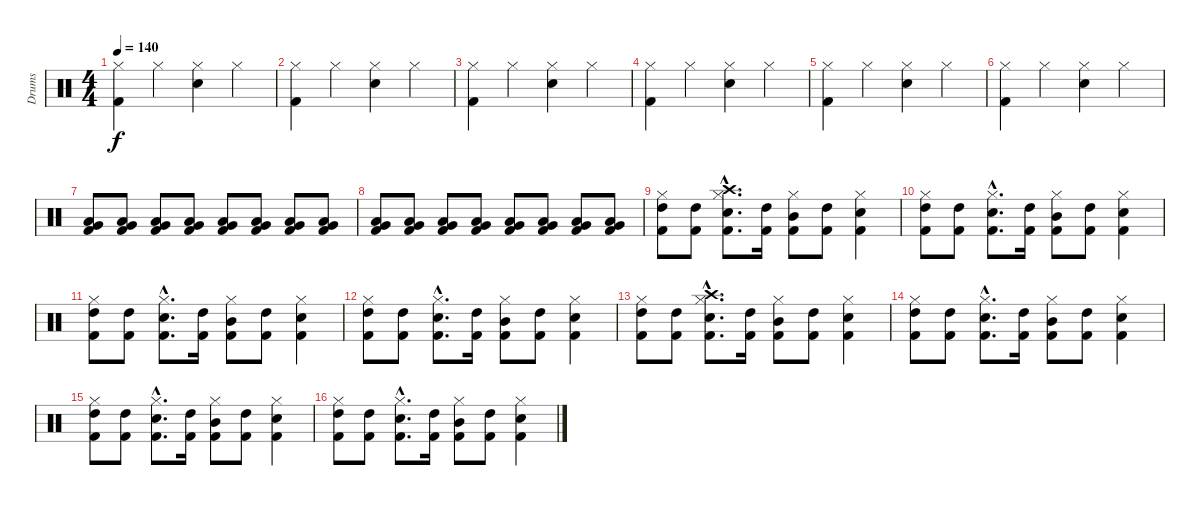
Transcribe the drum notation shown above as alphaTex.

\track ("Drums" "Drums") {instrument percussion}
\staff {score}
\articulation defaults
\ts (4 4)
\tempo 140
\clef neutral
\ks c
("Hi-Hat (closed)" "Kick (hit) 2").4{dy f} "Hi-Hat (closed)".4 ("Hi-Hat (closed)" "Electric Snare (hit)").4 "Hi-Hat (closed)".4 |
("Hi-Hat (closed)" "Kick (hit) 2").4 "Hi-Hat (closed)".4 ("Hi-Hat (closed)" "Electric Snare (hit)").4 "Hi-Hat (closed)".4 |
("Hi-Hat (closed)" "Kick (hit) 2").4 "Hi-Hat (closed)".4 ("Hi-Hat (closed)" "Electric Snare (hit)").4 "Hi-Hat (closed)".4 |
("Hi-Hat (closed)" "Kick (hit) 2").4 "Hi-Hat (closed)".4 ("Hi-Hat (closed)" "Electric Snare (hit)").4 "Hi-Hat (closed)".4 |
("Hi-Hat (closed)" "Kick (hit) 2").4 "Hi-Hat (closed)".4 ("Hi-Hat (closed)" "Electric Snare (hit)").4 "Hi-Hat (closed)".4 |
("Hi-Hat (closed)" "Kick (hit) 2").4 "Hi-Hat (closed)".4 ("Hi-Hat (closed)" "Electric Snare (hit)").4 "Hi-Hat (closed)".4 |
("Kick (hit) 2" "Very Low Tom (hit)" "Low Floor Tom (hit)").8 ("Kick (hit) 2" "Very Low Tom (hit)" "Low Floor Tom (hit)").8 ("Kick (hit) 2" "Very Low Tom (hit)" "Low Floor Tom (hit)").8 ("Kick (hit) 2" "Very Low Tom (hit)" "Low Floor Tom (hit)").8 ("Kick (hit) 2" "Very Low Tom (hit)" "Low Floor Tom (hit)").8 ("Kick (hit) 2" "Very Low Tom (hit)" "Low Floor Tom (hit)").8 ("Kick (hit) 2" "Very Low Tom (hit)" "Low Floor Tom (hit)").8 ("Kick (hit) 2" "Very Low Tom (hit)" "Low Floor Tom (hit)").8 |
("Kick (hit) 2" "Very Low Tom (hit)" "Low Floor Tom (hit)").8 ("Kick (hit) 2" "Very Low Tom (hit)" "Low Floor Tom (hit)").8 ("Kick (hit) 2" "Very Low Tom (hit)" "Low Floor Tom (hit)").8 ("Kick (hit) 2" "Very Low Tom (hit)" "Low Floor Tom (hit)").8 ("Kick (hit) 2" "Very Low Tom (hit)" "Low Floor Tom (hit)").8 ("Kick (hit) 2" "Very Low Tom (hit)" "Low Floor Tom (hit)").8 ("Kick (hit) 2" "Very Low Tom (hit)" "Low Floor Tom (hit)").8 ("Kick (hit) 2" "Very Low Tom (hit)" "Low Floor Tom (hit)").8 |
("Kick (hit) 2" "High Tom (hit)" "Hi-Hat (closed)").8 ("Kick (hit) 2" "High Tom (hit)").8 ("Kick (hit) 2"{hac} "Electric Snare (hit)"{hac} "Crash high (hit)"{hac} "Hi-Hat (closed)"{hac}).8{d} ("Kick (hit) 2" "High Tom (hit)").16 ("Kick (hit) 2" "Mid Tom (hit)" "Hi-Hat (closed)").8 ("Kick (hit) 2" "High Tom (hit)").8 ("Kick (hit) 2" "Electric Snare (hit)" "Hi-Hat (closed)").4 |
("Kick (hit) 2" "High Tom (hit)" "Hi-Hat (closed)").8 ("Kick (hit) 2" "High Tom (hit)").8 ("Kick (hit) 2"{hac} "Electric Snare (hit)"{hac} "Hi-Hat (closed)"{hac}).8{d} ("Kick (hit) 2" "High Tom (hit)").16 ("Kick (hit) 2" "Mid Tom (hit)" "Hi-Hat (closed)").8 ("Kick (hit) 2" "High Tom (hit)").8 ("Kick (hit) 2" "Electric Snare (hit)" "Hi-Hat (closed)").4 |
("Kick (hit) 2" "High Tom (hit)" "Hi-Hat (closed)").8 ("Kick (hit) 2" "High Tom (hit)").8 ("Kick (hit) 2"{hac} "Electric Snare (hit)"{hac} "Hi-Hat (closed)"{hac}).8{d} ("Kick (hit) 2" "High Tom (hit)").16 ("Kick (hit) 2" "Mid Tom (hit)" "Hi-Hat (closed)").8 ("Kick (hit) 2" "High Tom (hit)").8 ("Kick (hit) 2" "Electric Snare (hit)" "Hi-Hat (closed)").4 |
("Kick (hit) 2" "High Tom (hit)" "Hi-Hat (closed)").8 ("Kick (hit) 2" "High Tom (hit)").8 ("Kick (hit) 2"{hac} "Electric Snare (hit)"{hac} "Hi-Hat (closed)"{hac}).8{d} ("Kick (hit) 2" "High Tom (hit)").16 ("Kick (hit) 2" "Mid Tom (hit)" "Hi-Hat (closed)").8 ("Kick (hit) 2" "High Tom (hit)").8 ("Kick (hit) 2" "Electric Snare (hit)" "Hi-Hat (closed)").4 |
("Kick (hit) 2" "High Tom (hit)" "Hi-Hat (closed)").8 ("Kick (hit) 2" "High Tom (hit)").8 ("Kick (hit) 2"{hac} "Electric Snare (hit)"{hac} "Crash high (hit)"{hac} "Hi-Hat (closed)"{hac}).8{d} ("Kick (hit) 2" "High Tom (hit)").16 ("Kick (hit) 2" "Mid Tom (hit)" "Hi-Hat (closed)").8 ("Kick (hit) 2" "High Tom (hit)").8 ("Kick (hit) 2" "Electric Snare (hit)" "Hi-Hat (closed)").4 |
("Kick (hit) 2" "High Tom (hit)" "Hi-Hat (closed)").8 ("Kick (hit) 2" "High Tom (hit)").8 ("Kick (hit) 2"{hac} "Electric Snare (hit)"{hac} "Hi-Hat (closed)"{hac}).8{d} ("Kick (hit) 2" "High Tom (hit)").16 ("Kick (hit) 2" "Mid Tom (hit)" "Hi-Hat (closed)").8 ("Kick (hit) 2" "High Tom (hit)").8 ("Kick (hit) 2" "Electric Snare (hit)" "Hi-Hat (closed)").4 |
("Kick (hit) 2" "High Tom (hit)" "Hi-Hat (closed)").8 ("Kick (hit) 2" "High Tom (hit)").8 ("Kick (hit) 2"{hac} "Electric Snare (hit)"{hac} "Hi-Hat (closed)"{hac}).8{d} ("Kick (hit) 2" "High Tom (hit)").16 ("Kick (hit) 2" "Mid Tom (hit)" "Hi-Hat (closed)").8 ("Kick (hit) 2" "High Tom (hit)").8 ("Kick (hit) 2" "Electric Snare (hit)" "Hi-Hat (closed)").4 |
("Kick (hit) 2" "High Tom (hit)" "Hi-Hat (closed)").8 ("Kick (hit) 2" "High Tom (hit)").8 ("Kick (hit) 2"{hac} "Electric Snare (hit)"{hac} "Hi-Hat (closed)"{hac}).8{d} ("Kick (hit) 2" "High Tom (hit)").16 ("Kick (hit) 2" "Mid Tom (hit)" "Hi-Hat (closed)").8 ("Kick (hit) 2" "High Tom (hit)").8 ("Kick (hit) 2" "Electric Snare (hit)" "Hi-Hat (closed)").4
